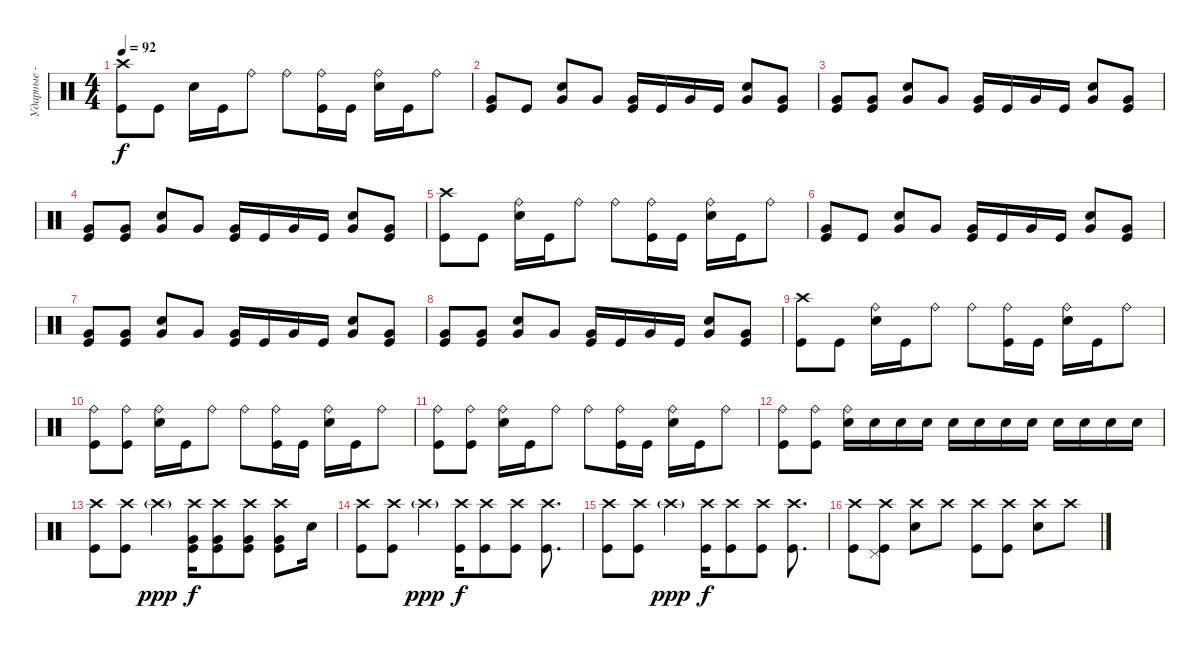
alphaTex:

\track ("Ударные - Джек Уайт" "Ударные - ") {instrument percussion}
\staff {score}
\articulation defaults
\ts (4 4)
\tempo 92
\clef neutral
\ks c
("Crash high (hit)" "Kick (hit)").8{dy f} "Kick (hit)".8 "Electric Snare (hit)".16 "Kick (hit)".16 "Ride (bell)".8 "Ride (bell)".8 ("Ride (bell)" "Kick (hit)").16 "Kick (hit)".16 ("Ride (bell)" "Electric Snare (hit)").16 "Kick (hit)".16 "Ride (bell)".8 |
("Very Low Tom (hit)" "Kick (hit)").8 "Kick (hit)".8 ("Electric Snare (hit)" "Very Low Tom (hit)").8 "Very Low Tom (hit)".8 ("Very Low Tom (hit)" "Kick (hit)").16 "Kick (hit)".16 "Very Low Tom (hit)".16 "Kick (hit)".16 ("Electric Snare (hit)" "Very Low Tom (hit)").8 ("Very Low Tom (hit)" "Kick (hit)").8 |
("Very Low Tom (hit)" "Kick (hit)").8 ("Very Low Tom (hit)" "Kick (hit)").8 ("Electric Snare (hit)" "Very Low Tom (hit)").8 "Very Low Tom (hit)".8 ("Very Low Tom (hit)" "Kick (hit)").16 "Kick (hit)".16 "Very Low Tom (hit)".16 "Kick (hit)".16 ("Electric Snare (hit)" "Very Low Tom (hit)").8 ("Very Low Tom (hit)" "Kick (hit)").8 |
("Very Low Tom (hit)" "Kick (hit)").8 ("Very Low Tom (hit)" "Kick (hit)").8 ("Electric Snare (hit)" "Very Low Tom (hit)").8 "Very Low Tom (hit)".8 ("Very Low Tom (hit)" "Kick (hit)").16 "Kick (hit)".16 "Very Low Tom (hit)".16 "Kick (hit)".16 ("Electric Snare (hit)" "Very Low Tom (hit)").8 ("Very Low Tom (hit)" "Kick (hit)").8 |
("Crash high (hit)" "Kick (hit)").8 "Kick (hit)".8 ("Ride (bell)" "Electric Snare (hit)").16 "Kick (hit)".16 "Ride (bell)".8 "Ride (bell)".8 ("Ride (bell)" "Kick (hit)").16 "Kick (hit)".16 ("Ride (bell)" "Electric Snare (hit)").16 "Kick (hit)".16 "Ride (bell)".8 |
("Very Low Tom (hit)" "Kick (hit)").8 "Kick (hit)".8 ("Electric Snare (hit)" "Very Low Tom (hit)").8 "Very Low Tom (hit)".8 ("Very Low Tom (hit)" "Kick (hit)").16 "Kick (hit)".16 "Very Low Tom (hit)".16 "Kick (hit)".16 ("Electric Snare (hit)" "Very Low Tom (hit)").8 ("Very Low Tom (hit)" "Kick (hit)").8 |
("Very Low Tom (hit)" "Kick (hit)").8 ("Very Low Tom (hit)" "Kick (hit)").8 ("Electric Snare (hit)" "Very Low Tom (hit)").8 "Very Low Tom (hit)".8 ("Very Low Tom (hit)" "Kick (hit)").16 "Kick (hit)".16 "Very Low Tom (hit)".16 "Kick (hit)".16 ("Electric Snare (hit)" "Very Low Tom (hit)").8 ("Very Low Tom (hit)" "Kick (hit)").8 |
("Very Low Tom (hit)" "Kick (hit)").8 ("Very Low Tom (hit)" "Kick (hit)").8 ("Electric Snare (hit)" "Very Low Tom (hit)").8 "Very Low Tom (hit)".8 ("Very Low Tom (hit)" "Kick (hit)").16 "Kick (hit)".16 "Very Low Tom (hit)".16 "Kick (hit)".16 ("Electric Snare (hit)" "Very Low Tom (hit)").8 ("Very Low Tom (hit)" "Kick (hit)").8 |
("Crash high (hit)" "Kick (hit)").8 "Kick (hit)".8 ("Ride (bell)" "Electric Snare (hit)").16 "Kick (hit)".16 "Ride (bell)".8 "Ride (bell)".8 ("Ride (bell)" "Kick (hit)").16 "Kick (hit)".16 ("Ride (bell)" "Electric Snare (hit)").16 "Kick (hit)".16 "Ride (bell)".8 |
("Ride (bell)" "Kick (hit)").8 ("Ride (bell)" "Kick (hit)").8 ("Ride (bell)" "Electric Snare (hit)").16 "Kick (hit)".16 "Ride (bell)".8 "Ride (bell)".8 ("Ride (bell)" "Kick (hit)").16 "Kick (hit)".16 ("Ride (bell)" "Electric Snare (hit)").16 "Kick (hit)".16 "Ride (bell)".8 |
("Ride (bell)" "Kick (hit)").8 ("Ride (bell)" "Kick (hit)").8 ("Ride (bell)" "Electric Snare (hit)").16 "Kick (hit)".16 "Ride (bell)".8 "Ride (bell)".8 ("Ride (bell)" "Kick (hit)").16 "Kick (hit)".16 ("Ride (bell)" "Electric Snare (hit)").16 "Kick (hit)".16 "Ride (bell)".8 |
("Ride (bell)" "Kick (hit)").8 ("Ride (bell)" "Kick (hit)").8 ("Ride (bell)" "Electric Snare (hit)").16 "Snare (hit) 2".16 "Electric Snare (hit)".16 "Snare (hit) 2".16 "Electric Snare (hit)".16 "Snare (hit) 2".16 "Electric Snare (hit)".16 "Electric Snare (hit)".16 "Electric Snare (hit)".16 "Electric Snare (hit)".16 "Electric Snare (hit)".16 "Electric Snare (hit)".16 |
("Crash high (hit)" "Kick (hit)").8 ("Crash high (hit)" "Kick (hit)").8 "Crash high (hit)"{g}.4{dy ppp} ("Crash high (hit)" "Very Low Tom (hit)" "Kick (hit)").16{dy f} ("Crash high (hit)" "Very Low Tom (hit)" "Kick (hit)").8 ("Crash high (hit)" "Very Low Tom (hit)" "Kick (hit)").8 ("Crash high (hit)" "Very Low Tom (hit)" "Kick (hit)").8 "Electric Snare (hit)".16 |
("Crash high (hit)" "Kick (hit)").8 ("Crash high (hit)" "Kick (hit)").8 "Crash high (hit)"{g}.4{dy ppp} ("Crash high (hit)" "Kick (hit)").16{dy f} ("Crash high (hit)" "Kick (hit)").8 ("Crash high (hit)" "Kick (hit)").8 ("Crash high (hit)" "Kick (hit)").8{d} |
("Crash high (hit)" "Kick (hit)").8 ("Crash high (hit)" "Kick (hit)").8 "Crash high (hit)"{g}.4{dy ppp} ("Crash high (hit)" "Kick (hit)").16{dy f} ("Crash high (hit)" "Kick (hit)").8 ("Crash high (hit)" "Kick (hit)").8 ("Crash high (hit)" "Kick (hit)").8{d} |
("Crash high (hit)" "Kick (hit)").8 ("Crash high (hit)" "Pedal Hi-Hat (hit)" "Kick (hit)").8 ("Crash high (hit)" "Electric Snare (hit)").8 "Crash high (hit)".8 ("Crash high (hit)" "Kick (hit)").8 ("Crash high (hit)" "Kick (hit)").8 ("Crash high (hit)" "Electric Snare (hit)").8 "Crash high (hit)".8
